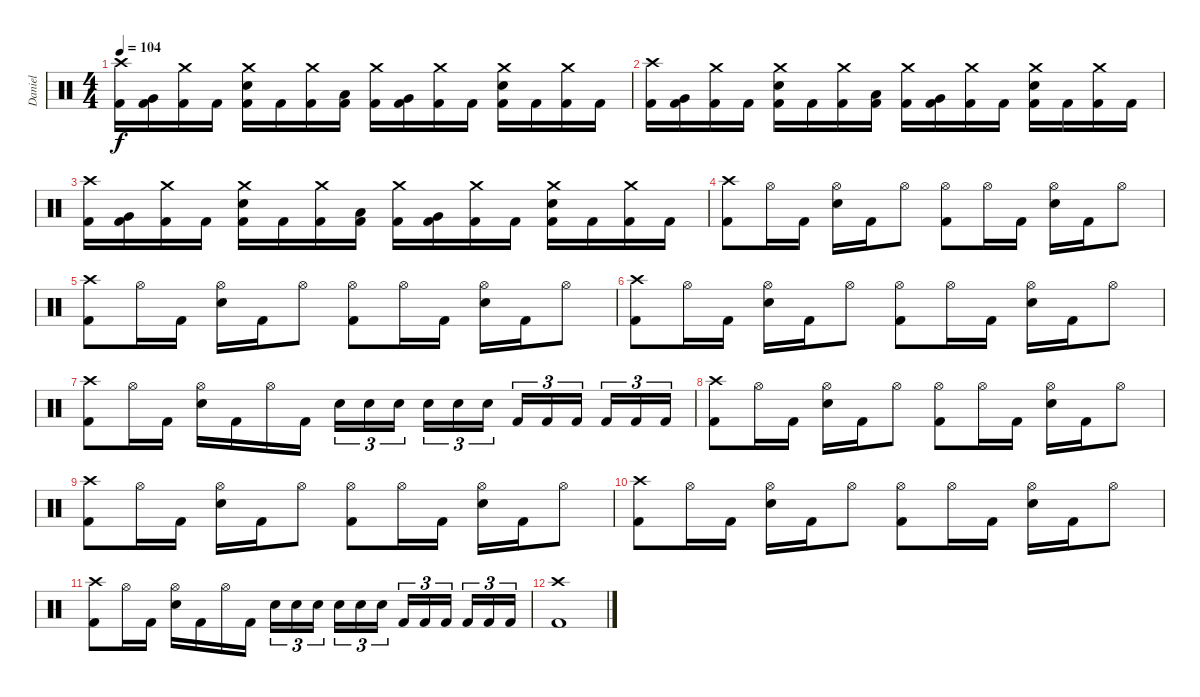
\track ("Daniel" "Daniel") {instrument percussion}
\staff {score}
\articulation defaults
\ts (4 4)
\tempo 104
\clef neutral
\ks c
("Crash high (hit)" "Kick (hit) 2").16{dy f} ("Very Low Tom (hit)" "Kick (hit) 2").16 ("Crash medium (hit)" "Kick (hit) 2").16 "Kick (hit) 2".16 ("Crash medium (hit)" "Snare (hit) 2" "Kick (hit) 2").16 "Kick (hit) 2".16 ("Crash medium (hit)" "Kick (hit) 2").16 ("Low Tom (hit)" "Kick (hit) 2").16 ("Crash medium (hit)" "Kick (hit) 2").16 ("Very Low Tom (hit)" "Kick (hit) 2").16 ("Crash medium (hit)" "Kick (hit) 2").16 "Kick (hit) 2".16 ("Crash medium (hit)" "Snare (hit) 2" "Kick (hit) 2").16 "Kick (hit) 2".16 ("Crash medium (hit)" "Kick (hit) 2").16 "Kick (hit) 2".16 |
("Crash high (hit)" "Kick (hit) 2").16 ("Very Low Tom (hit)" "Kick (hit) 2").16 ("Crash medium (hit)" "Kick (hit) 2").16 "Kick (hit) 2".16 ("Crash medium (hit)" "Snare (hit) 2" "Kick (hit) 2").16 "Kick (hit) 2".16 ("Crash medium (hit)" "Kick (hit) 2").16 ("Low Tom (hit)" "Kick (hit) 2").16 ("Crash medium (hit)" "Kick (hit) 2").16 ("Very Low Tom (hit)" "Kick (hit) 2").16 ("Crash medium (hit)" "Kick (hit) 2").16 "Kick (hit) 2".16 ("Crash medium (hit)" "Snare (hit) 2" "Kick (hit) 2").16 "Kick (hit) 2".16 ("Crash medium (hit)" "Kick (hit) 2").16 "Kick (hit) 2".16 |
("Crash high (hit)" "Kick (hit) 2").16 ("Very Low Tom (hit)" "Kick (hit) 2").16 ("Crash medium (hit)" "Kick (hit) 2").16 "Kick (hit) 2".16 ("Crash medium (hit)" "Snare (hit) 2" "Kick (hit) 2").16 "Kick (hit) 2".16 ("Crash medium (hit)" "Kick (hit) 2").16 ("Low Tom (hit)" "Kick (hit) 2").16 ("Crash medium (hit)" "Kick (hit) 2").16 ("Very Low Tom (hit)" "Kick (hit) 2").16 ("Crash medium (hit)" "Kick (hit) 2").16 "Kick (hit) 2".16 ("Crash medium (hit)" "Snare (hit) 2" "Kick (hit) 2").16 "Kick (hit) 2".16 ("Crash medium (hit)" "Kick (hit) 2").16 "Kick (hit) 2".16 |
("Crash high (hit)" "Kick (hit) 2").8 "Hi-Hat (open)".16 "Kick (hit) 2".16 ("Hi-Hat (open)" "Snare (hit) 2").16 "Kick (hit) 2".16 "Hi-Hat (open)".8 ("Hi-Hat (open)" "Kick (hit) 2").8 "Hi-Hat (open)".16 "Kick (hit) 2".16 ("Hi-Hat (open)" "Snare (hit) 2").16 "Kick (hit) 2".16 "Hi-Hat (open)".8 |
("Crash high (hit)" "Kick (hit) 2").8 "Hi-Hat (open)".16 "Kick (hit) 2".16 ("Hi-Hat (open)" "Snare (hit) 2").16 "Kick (hit) 2".16 "Hi-Hat (open)".8 ("Hi-Hat (open)" "Kick (hit) 2").8 "Hi-Hat (open)".16 "Kick (hit) 2".16 ("Hi-Hat (open)" "Snare (hit) 2").16 "Kick (hit) 2".16 "Hi-Hat (open)".8 |
("Crash high (hit)" "Kick (hit) 2").8 "Hi-Hat (open)".16 "Kick (hit) 2".16 ("Hi-Hat (open)" "Snare (hit) 2").16 "Kick (hit) 2".16 "Hi-Hat (open)".8 ("Hi-Hat (open)" "Kick (hit) 2").8 "Hi-Hat (open)".16 "Kick (hit) 2".16 ("Hi-Hat (open)" "Snare (hit) 2").16 "Kick (hit) 2".16 "Hi-Hat (open)".8 |
("Crash high (hit)" "Kick (hit) 2").8 "Hi-Hat (open)".16 "Kick (hit) 2".16 ("Hi-Hat (open)" "Snare (hit) 2").16 "Kick (hit) 2".16 "Hi-Hat (open)".16 "Kick (hit) 2".16 "Snare (hit) 2".16{tu (3 2)} "Snare (hit) 2".16{tu (3 2)} "Snare (hit) 2".16{tu (3 2)} "Snare (hit) 2".16{tu (3 2)} "Snare (hit) 2".16{tu (3 2)} "Snare (hit) 2".16{tu (3 2)} "Kick (hit) 2".16{tu (3 2)} "Kick (hit) 2".16{tu (3 2)} "Kick (hit) 2".16{tu (3 2)} "Kick (hit) 2".16{tu (3 2)} "Kick (hit) 2".16{tu (3 2)} "Kick (hit) 2".16{tu (3 2)} |
("Crash high (hit)" "Kick (hit) 2").8 "Hi-Hat (open)".16 "Kick (hit) 2".16 ("Hi-Hat (open)" "Snare (hit) 2").16 "Kick (hit) 2".16 "Hi-Hat (open)".8 ("Hi-Hat (open)" "Kick (hit) 2").8 "Hi-Hat (open)".16 "Kick (hit) 2".16 ("Hi-Hat (open)" "Snare (hit) 2").16 "Kick (hit) 2".16 "Hi-Hat (open)".8 |
("Crash high (hit)" "Kick (hit) 2").8 "Hi-Hat (open)".16 "Kick (hit) 2".16 ("Hi-Hat (open)" "Snare (hit) 2").16 "Kick (hit) 2".16 "Hi-Hat (open)".8 ("Hi-Hat (open)" "Kick (hit) 2").8 "Hi-Hat (open)".16 "Kick (hit) 2".16 ("Hi-Hat (open)" "Snare (hit) 2").16 "Kick (hit) 2".16 "Hi-Hat (open)".8 |
("Crash high (hit)" "Kick (hit) 2").8 "Hi-Hat (open)".16 "Kick (hit) 2".16 ("Hi-Hat (open)" "Snare (hit) 2").16 "Kick (hit) 2".16 "Hi-Hat (open)".8 ("Hi-Hat (open)" "Kick (hit) 2").8 "Hi-Hat (open)".16 "Kick (hit) 2".16 ("Hi-Hat (open)" "Snare (hit) 2").16 "Kick (hit) 2".16 "Hi-Hat (open)".8 |
("Crash high (hit)" "Kick (hit) 2").8 "Hi-Hat (open)".16 "Kick (hit) 2".16 ("Hi-Hat (open)" "Snare (hit) 2").16 "Kick (hit) 2".16 "Hi-Hat (open)".16 "Kick (hit) 2".16 "Snare (hit) 2".16{tu (3 2)} "Snare (hit) 2".16{tu (3 2)} "Snare (hit) 2".16{tu (3 2)} "Snare (hit) 2".16{tu (3 2)} "Snare (hit) 2".16{tu (3 2)} "Snare (hit) 2".16{tu (3 2)} "Kick (hit) 2".16{tu (3 2)} "Kick (hit) 2".16{tu (3 2)} "Kick (hit) 2".16{tu (3 2)} "Kick (hit) 2".16{tu (3 2)} "Kick (hit) 2".16{tu (3 2)} "Kick (hit) 2".16{tu (3 2)} |
("Crash high (hit)" "Kick (hit) 2").1
